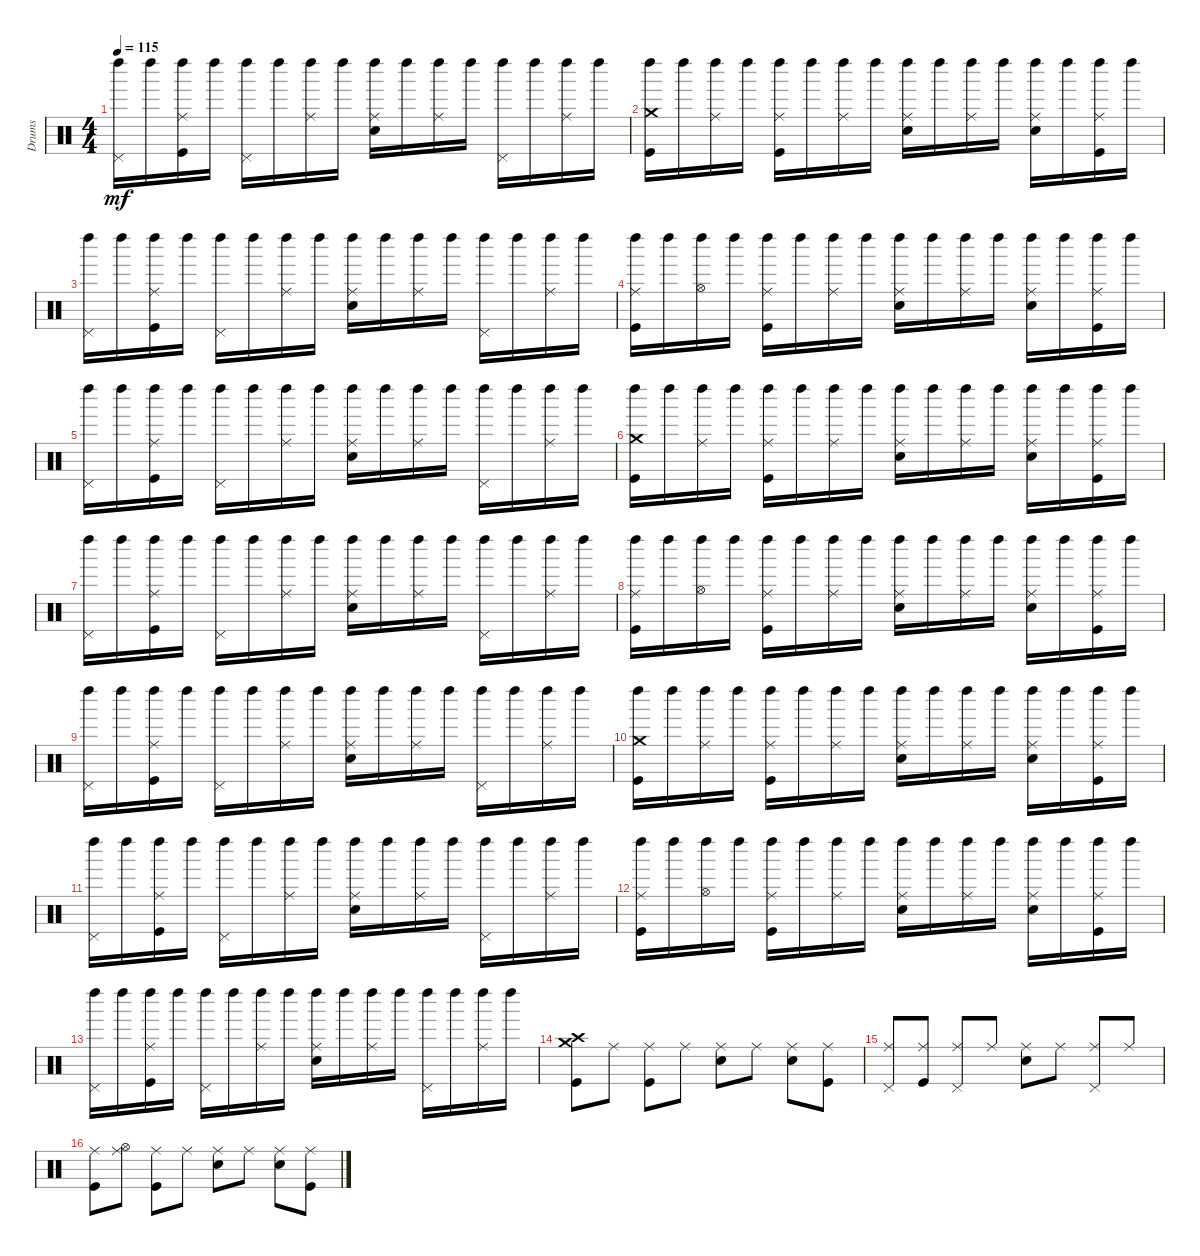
\track ("Drums" "Drums") {instrument percussion}
\staff {score}
\articulation defaults
\ts (4 4)
\tempo 115
\clef neutral
\ks c
("Left Maraca (hit)" "Pedal Hi-Hat (hit)").16{dy mf} "Left Maraca (hit)".16 ("Left Maraca (hit)" "Ride (middle)" "Kick (hit)").16 "Left Maraca (hit)".16 ("Left Maraca (hit)" "Pedal Hi-Hat (hit)").16 "Left Maraca (hit)".16 ("Left Maraca (hit)" "Ride (middle)").16 "Left Maraca (hit)".16 ("Left Maraca (hit)" "Ride (middle)" "Snare (hit) 2").16 "Left Maraca (hit)".16 ("Left Maraca (hit)" "Ride (middle)").16 "Left Maraca (hit)".16 ("Left Maraca (hit)" "Pedal Hi-Hat (hit)").16 "Left Maraca (hit)".16 ("Left Maraca (hit)" "Ride (middle)").16 "Left Maraca (hit)".16 |
("Left Maraca (hit)" "Crash medium (hit)" "Kick (hit)").16 "Left Maraca (hit)".16 ("Left Maraca (hit)" "Ride (middle)").16 "Left Maraca (hit)".16 ("Left Maraca (hit)" "Ride (middle)" "Kick (hit)").16 "Left Maraca (hit)".16 ("Left Maraca (hit)" "Ride (middle)").16 "Left Maraca (hit)".16 ("Left Maraca (hit)" "Ride (middle)" "Snare (hit) 2").16 "Left Maraca (hit)".16 ("Left Maraca (hit)" "Ride (middle)").16 "Left Maraca (hit)".16 ("Left Maraca (hit)" "Ride (middle)" "Snare (hit) 2").16 "Left Maraca (hit)".16 ("Left Maraca (hit)" "Ride (middle)" "Kick (hit)").16 "Left Maraca (hit)".16 |
("Left Maraca (hit)" "Pedal Hi-Hat (hit)").16 "Left Maraca (hit)".16 ("Left Maraca (hit)" "Ride (middle)" "Kick (hit)").16 "Left Maraca (hit)".16 ("Left Maraca (hit)" "Pedal Hi-Hat (hit)").16 "Left Maraca (hit)".16 ("Left Maraca (hit)" "Ride (middle)").16 "Left Maraca (hit)".16 ("Left Maraca (hit)" "Ride (middle)" "Snare (hit) 2").16 "Left Maraca (hit)".16 ("Left Maraca (hit)" "Ride (middle)").16 "Left Maraca (hit)".16 ("Left Maraca (hit)" "Pedal Hi-Hat (hit)").16 "Left Maraca (hit)".16 ("Left Maraca (hit)" "Ride (middle)").16 "Left Maraca (hit)".16 |
("Left Maraca (hit)" "Ride (middle)" "Kick (hit)").16 "Left Maraca (hit)".16 ("Left Maraca (hit)" "Hi-Hat (open)").16 "Left Maraca (hit)".16 ("Left Maraca (hit)" "Ride (middle)" "Kick (hit)").16 "Left Maraca (hit)".16 ("Left Maraca (hit)" "Ride (middle)").16 "Left Maraca (hit)".16 ("Left Maraca (hit)" "Ride (middle)" "Snare (hit) 2").16 "Left Maraca (hit)".16 ("Left Maraca (hit)" "Ride (middle)").16 "Left Maraca (hit)".16 ("Left Maraca (hit)" "Ride (middle)" "Snare (hit) 2").16 "Left Maraca (hit)".16 ("Left Maraca (hit)" "Ride (middle)" "Kick (hit)").16 "Left Maraca (hit)".16 |
("Left Maraca (hit)" "Pedal Hi-Hat (hit)").16 "Left Maraca (hit)".16 ("Left Maraca (hit)" "Ride (middle)" "Kick (hit)").16 "Left Maraca (hit)".16 ("Left Maraca (hit)" "Pedal Hi-Hat (hit)").16 "Left Maraca (hit)".16 ("Left Maraca (hit)" "Ride (middle)").16 "Left Maraca (hit)".16 ("Left Maraca (hit)" "Ride (middle)" "Snare (hit) 2").16 "Left Maraca (hit)".16 ("Left Maraca (hit)" "Ride (middle)").16 "Left Maraca (hit)".16 ("Left Maraca (hit)" "Pedal Hi-Hat (hit)").16 "Left Maraca (hit)".16 ("Left Maraca (hit)" "Ride (middle)").16 "Left Maraca (hit)".16 |
("Left Maraca (hit)" "Crash medium (hit)" "Kick (hit)").16 "Left Maraca (hit)".16 ("Left Maraca (hit)" "Ride (middle)").16 "Left Maraca (hit)".16 ("Left Maraca (hit)" "Ride (middle)" "Kick (hit)").16 "Left Maraca (hit)".16 ("Left Maraca (hit)" "Ride (middle)").16 "Left Maraca (hit)".16 ("Left Maraca (hit)" "Ride (middle)" "Snare (hit) 2").16 "Left Maraca (hit)".16 ("Left Maraca (hit)" "Ride (middle)").16 "Left Maraca (hit)".16 ("Left Maraca (hit)" "Ride (middle)" "Snare (hit) 2").16 "Left Maraca (hit)".16 ("Left Maraca (hit)" "Ride (middle)" "Kick (hit)").16 "Left Maraca (hit)".16 |
("Left Maraca (hit)" "Pedal Hi-Hat (hit)").16 "Left Maraca (hit)".16 ("Left Maraca (hit)" "Ride (middle)" "Kick (hit)").16 "Left Maraca (hit)".16 ("Left Maraca (hit)" "Pedal Hi-Hat (hit)").16 "Left Maraca (hit)".16 ("Left Maraca (hit)" "Ride (middle)").16 "Left Maraca (hit)".16 ("Left Maraca (hit)" "Ride (middle)" "Snare (hit) 2").16 "Left Maraca (hit)".16 ("Left Maraca (hit)" "Ride (middle)").16 "Left Maraca (hit)".16 ("Left Maraca (hit)" "Pedal Hi-Hat (hit)").16 "Left Maraca (hit)".16 ("Left Maraca (hit)" "Ride (middle)").16 "Left Maraca (hit)".16 |
("Left Maraca (hit)" "Ride (middle)" "Kick (hit)").16 "Left Maraca (hit)".16 ("Left Maraca (hit)" "Hi-Hat (open)").16 "Left Maraca (hit)".16 ("Left Maraca (hit)" "Ride (middle)" "Kick (hit)").16 "Left Maraca (hit)".16 ("Left Maraca (hit)" "Ride (middle)").16 "Left Maraca (hit)".16 ("Left Maraca (hit)" "Ride (middle)" "Snare (hit) 2").16 "Left Maraca (hit)".16 ("Left Maraca (hit)" "Ride (middle)").16 "Left Maraca (hit)".16 ("Left Maraca (hit)" "Ride (middle)" "Snare (hit) 2").16 "Left Maraca (hit)".16 ("Left Maraca (hit)" "Ride (middle)" "Kick (hit)").16 "Left Maraca (hit)".16 |
("Left Maraca (hit)" "Pedal Hi-Hat (hit)").16 "Left Maraca (hit)".16 ("Left Maraca (hit)" "Ride (middle)" "Kick (hit)").16 "Left Maraca (hit)".16 ("Left Maraca (hit)" "Pedal Hi-Hat (hit)").16 "Left Maraca (hit)".16 ("Left Maraca (hit)" "Ride (middle)").16 "Left Maraca (hit)".16 ("Left Maraca (hit)" "Ride (middle)" "Snare (hit) 2").16 "Left Maraca (hit)".16 ("Left Maraca (hit)" "Ride (middle)").16 "Left Maraca (hit)".16 ("Left Maraca (hit)" "Pedal Hi-Hat (hit)").16 "Left Maraca (hit)".16 ("Left Maraca (hit)" "Ride (middle)").16 "Left Maraca (hit)".16 |
("Left Maraca (hit)" "Crash medium (hit)" "Kick (hit)").16 "Left Maraca (hit)".16 ("Left Maraca (hit)" "Ride (middle)").16 "Left Maraca (hit)".16 ("Left Maraca (hit)" "Ride (middle)" "Kick (hit)").16 "Left Maraca (hit)".16 ("Left Maraca (hit)" "Ride (middle)").16 "Left Maraca (hit)".16 ("Left Maraca (hit)" "Ride (middle)" "Snare (hit) 2").16 "Left Maraca (hit)".16 ("Left Maraca (hit)" "Ride (middle)").16 "Left Maraca (hit)".16 ("Left Maraca (hit)" "Ride (middle)" "Snare (hit) 2").16 "Left Maraca (hit)".16 ("Left Maraca (hit)" "Ride (middle)" "Kick (hit)").16 "Left Maraca (hit)".16 |
("Left Maraca (hit)" "Pedal Hi-Hat (hit)").16 "Left Maraca (hit)".16 ("Left Maraca (hit)" "Ride (middle)" "Kick (hit)").16 "Left Maraca (hit)".16 ("Left Maraca (hit)" "Pedal Hi-Hat (hit)").16 "Left Maraca (hit)".16 ("Left Maraca (hit)" "Ride (middle)").16 "Left Maraca (hit)".16 ("Left Maraca (hit)" "Ride (middle)" "Snare (hit) 2").16 "Left Maraca (hit)".16 ("Left Maraca (hit)" "Ride (middle)").16 "Left Maraca (hit)".16 ("Left Maraca (hit)" "Pedal Hi-Hat (hit)").16 "Left Maraca (hit)".16 ("Left Maraca (hit)" "Ride (middle)").16 "Left Maraca (hit)".16 |
("Left Maraca (hit)" "Ride (middle)" "Kick (hit)").16 "Left Maraca (hit)".16 ("Left Maraca (hit)" "Hi-Hat (open)").16 "Left Maraca (hit)".16 ("Left Maraca (hit)" "Ride (middle)" "Kick (hit)").16 "Left Maraca (hit)".16 ("Left Maraca (hit)" "Ride (middle)").16 "Left Maraca (hit)".16 ("Left Maraca (hit)" "Ride (middle)" "Snare (hit) 2").16 "Left Maraca (hit)".16 ("Left Maraca (hit)" "Ride (middle)").16 "Left Maraca (hit)".16 ("Left Maraca (hit)" "Ride (middle)" "Snare (hit) 2").16 "Left Maraca (hit)".16 ("Left Maraca (hit)" "Ride (middle)" "Kick (hit)").16 "Left Maraca (hit)".16 |
("Left Maraca (hit)" "Pedal Hi-Hat (hit)").16 "Left Maraca (hit)".16 ("Left Maraca (hit)" "Ride (middle)" "Kick (hit)").16 "Left Maraca (hit)".16 ("Left Maraca (hit)" "Pedal Hi-Hat (hit)").16 "Left Maraca (hit)".16 ("Left Maraca (hit)" "Ride (middle)").16 "Left Maraca (hit)".16 ("Left Maraca (hit)" "Ride (middle)" "Snare (hit) 2").16 "Left Maraca (hit)".16 ("Left Maraca (hit)" "Ride (middle)").16 "Left Maraca (hit)".16 ("Left Maraca (hit)" "Pedal Hi-Hat (hit)").16 "Left Maraca (hit)".16 ("Left Maraca (hit)" "Ride (middle)").16 "Left Maraca (hit)".16 |
("Crash high (hit)" "Crash medium (hit)" "Kick (hit)").8 "Ride (middle)".8 ("Ride (middle)" "Kick (hit)").8 "Ride (middle)".8 ("Ride (middle)" "Snare (hit) 2").8 "Ride (middle)".8 ("Ride (middle)" "Snare (hit) 2").8 ("Ride (middle)" "Kick (hit)").8 |
("Ride (middle)" "Pedal Hi-Hat (hit)").8 ("Ride (middle)" "Kick (hit)").8 ("Ride (middle)" "Pedal Hi-Hat (hit)").8 "Ride (middle)".8 ("Ride (middle)" "Snare (hit) 2").8 "Ride (middle)".8 ("Ride (middle)" "Pedal Hi-Hat (hit)").8 "Ride (middle)".8 |
("Ride (middle)" "Kick (hit)").8 ("Ride (middle)" "Hi-Hat (open)").8 ("Ride (middle)" "Kick (hit)").8 "Ride (middle)".8 ("Ride (middle)" "Snare (hit) 2").8 "Ride (middle)".8 ("Ride (middle)" "Snare (hit) 2").8 ("Ride (middle)" "Kick (hit)").8
